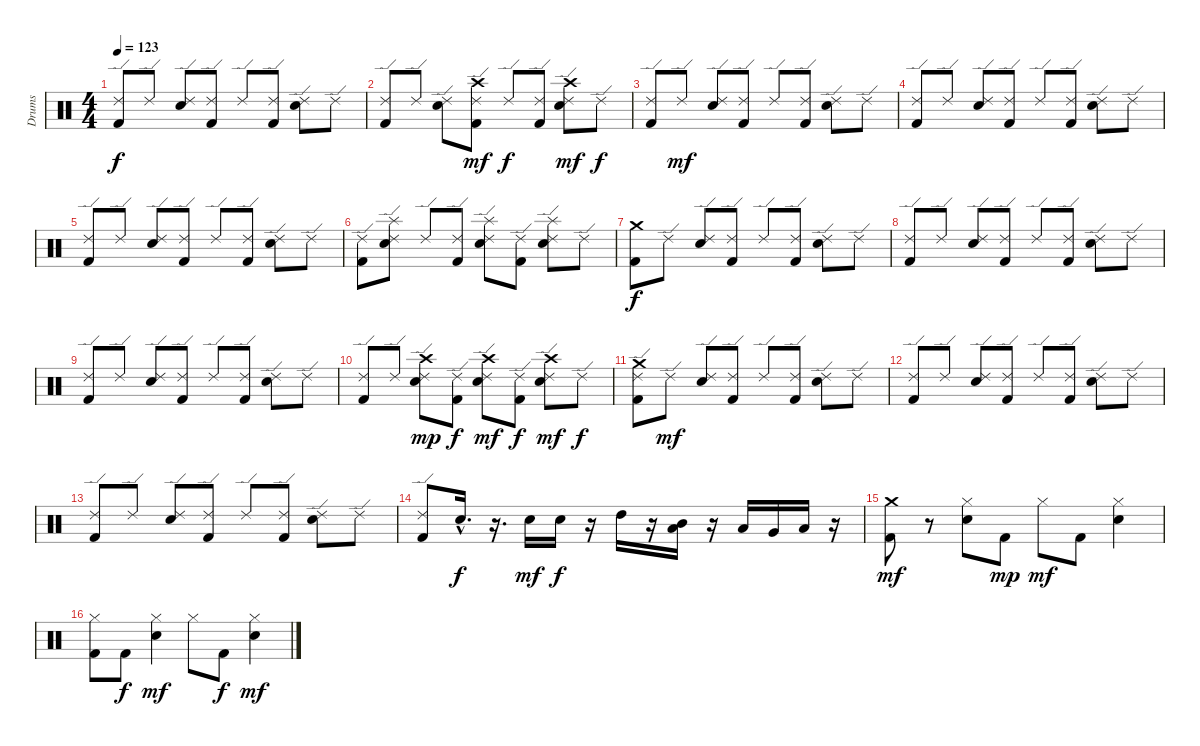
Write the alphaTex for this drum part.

\track ("Drums" "Drums") {instrument percussion}
\staff {score}
\articulation defaults
\ts (4 4)
\tempo 123
\clef neutral
\ks c
("Kick (hit) 2" "Ride (edge) 2").8{dy f} "Ride (edge) 2".8 ("Electric Snare (hit)" "Ride (edge) 2").8 ("Kick (hit) 2" "Ride (edge) 2").8 "Ride (edge) 2".8 ("Kick (hit) 2" "Ride (edge) 2").8 ("Electric Snare (hit)" "Ride (edge) 2").8 "Ride (edge) 2".8 |
("Kick (hit) 2" "Ride (edge) 2").8 "Ride (edge) 2".8 ("Electric Snare (hit)" "Ride (edge) 2").8 ("Kick (hit) 2" "Crash high (hit)" "Ride (edge) 2").8{dy mf} "Ride (edge) 2".8{dy f} ("Kick (hit) 2" "Ride (edge) 2").8 ("Electric Snare (hit)" "Crash high (hit)" "Ride (edge) 2").8{dy mf} "Ride (edge) 2".8{dy f} |
("Kick (hit) 2" "Ride (edge) 2").8 "Ride (edge) 2".8{dy mf} ("Electric Snare (hit)" "Ride (edge) 2").8 ("Kick (hit) 2" "Ride (edge) 2").8 "Ride (edge) 2".8 ("Kick (hit) 2" "Ride (edge) 2").8 ("Electric Snare (hit)" "Ride (edge) 2").8 "Ride (edge) 2".8 |
("Kick (hit) 2" "Ride (edge) 2").8 "Ride (edge) 2".8 ("Electric Snare (hit)" "Ride (edge) 2").8 ("Kick (hit) 2" "Ride (edge) 2").8 "Ride (edge) 2".8 ("Kick (hit) 2" "Ride (edge) 2").8 ("Electric Snare (hit)" "Ride (edge) 2").8 "Ride (edge) 2".8 |
("Kick (hit) 2" "Ride (edge) 2").8 "Ride (edge) 2".8 ("Electric Snare (hit)" "Ride (edge) 2").8 ("Kick (hit) 2" "Ride (edge) 2").8 "Ride (edge) 2".8 ("Kick (hit) 2" "Ride (edge) 2").8 ("Electric Snare (hit)" "Ride (edge) 2").8 "Ride (edge) 2".8 |
("Kick (hit) 2" "Ride (edge) 2").8 ("Electric Snare (hit)" "Splash (hit)" "Ride (edge) 2").8 "Ride (edge) 2".8 ("Kick (hit) 2" "Ride (edge) 2").8 ("Electric Snare (hit)" "Splash (hit)" "Ride (edge) 2").8 ("Kick (hit) 2" "Ride (edge) 2").8 ("Electric Snare (hit)" "Splash (hit)" "Ride (edge) 2").8 "Ride (edge) 2".8 |
("Kick (hit) 2" "Crash medium (hit)").8{dy f} "Ride (edge) 2".8 ("Electric Snare (hit)" "Ride (edge) 2").8 ("Kick (hit) 2" "Ride (edge) 2").8 "Ride (edge) 2".8 ("Kick (hit) 2" "Ride (edge) 2").8 ("Electric Snare (hit)" "Ride (edge) 2").8 "Ride (edge) 2".8 |
("Kick (hit) 2" "Ride (edge) 2").8 "Ride (edge) 2".8 ("Electric Snare (hit)" "Ride (edge) 2").8 ("Kick (hit) 2" "Ride (edge) 2").8 "Ride (edge) 2".8 ("Kick (hit) 2" "Ride (edge) 2").8 ("Electric Snare (hit)" "Ride (edge) 2").8 "Ride (edge) 2".8 |
("Kick (hit) 2" "Ride (edge) 2").8 "Ride (edge) 2".8 ("Electric Snare (hit)" "Ride (edge) 2").8 ("Kick (hit) 2" "Ride (edge) 2").8 "Ride (edge) 2".8 ("Kick (hit) 2" "Ride (edge) 2").8 ("Electric Snare (hit)" "Ride (edge) 2").8 "Ride (edge) 2".8 |
("Kick (hit) 2" "Ride (edge) 2").8 "Ride (edge) 2".8 ("Electric Snare (hit)" "Crash high (hit)" "Ride (edge) 2").8{dy mp} ("Kick (hit) 2" "Ride (edge) 2").8{dy f} ("Electric Snare (hit)" "Crash high (hit)" "Ride (edge) 2").8{dy mf} ("Kick (hit) 2" "Ride (edge) 2").8{dy f} ("Electric Snare (hit)" "Crash high (hit)" "Ride (edge) 2").8{dy mf} "Ride (edge) 2".8{dy f} |
("Kick (hit) 2" "Crash medium (hit)" "Ride (edge) 2").8 "Ride (edge) 2".8{dy mf} ("Electric Snare (hit)" "Ride (edge) 2").8 ("Kick (hit) 2" "Ride (edge) 2").8 "Ride (edge) 2".8 ("Kick (hit) 2" "Ride (edge) 2").8 ("Electric Snare (hit)" "Ride (edge) 2").8 "Ride (edge) 2".8 |
("Kick (hit) 2" "Ride (edge) 2").8 "Ride (edge) 2".8 ("Electric Snare (hit)" "Ride (edge) 2").8 ("Kick (hit) 2" "Ride (edge) 2").8 "Ride (edge) 2".8 ("Kick (hit) 2" "Ride (edge) 2").8 ("Electric Snare (hit)" "Ride (edge) 2").8 "Ride (edge) 2".8 |
("Kick (hit) 2" "Ride (edge) 2").8 "Ride (edge) 2".8 ("Electric Snare (hit)" "Ride (edge) 2").8 ("Kick (hit) 2" "Ride (edge) 2").8 "Ride (edge) 2".8 ("Kick (hit) 2" "Ride (edge) 2").8 ("Electric Snare (hit)" "Ride (edge) 2").8 "Ride (edge) 2".8 |
("Kick (hit) 2" "Ride (edge) 2").8 "Electric Snare (hit)"{hac}.16{d dy f} r.16{d} "Electric Snare (hit)".16{dy mf} "Electric Snare (hit)".16{dy f} r.16 "High Tom (hit)".16 r.16 ("Low Tom (hit)" "Mid Tom (hit)").16 r.16 "Low Tom (hit)".16 "Very Low Tom (hit)".16 "Low Floor Tom (hit)".16 r.16 |
("Kick (hit) 2" "Crash medium (hit)").8{dy mf} r.8 ("Electric Snare (hit)" "Hi-Hat (closed)").8 "Kick (hit) 2".8{dy mp} "Hi-Hat (closed)".8{dy mf} "Kick (hit) 2".8 ("Electric Snare (hit)" "Hi-Hat (closed)").4 |
("Kick (hit) 2" "Hi-Hat (closed)").8 "Kick (hit) 2".8{dy f} ("Electric Snare (hit)" "Hi-Hat (closed)").4{dy mf} "Hi-Hat (closed)".8 "Kick (hit) 2".8{dy f} ("Electric Snare (hit)" "Hi-Hat (closed)").4{dy mf}
